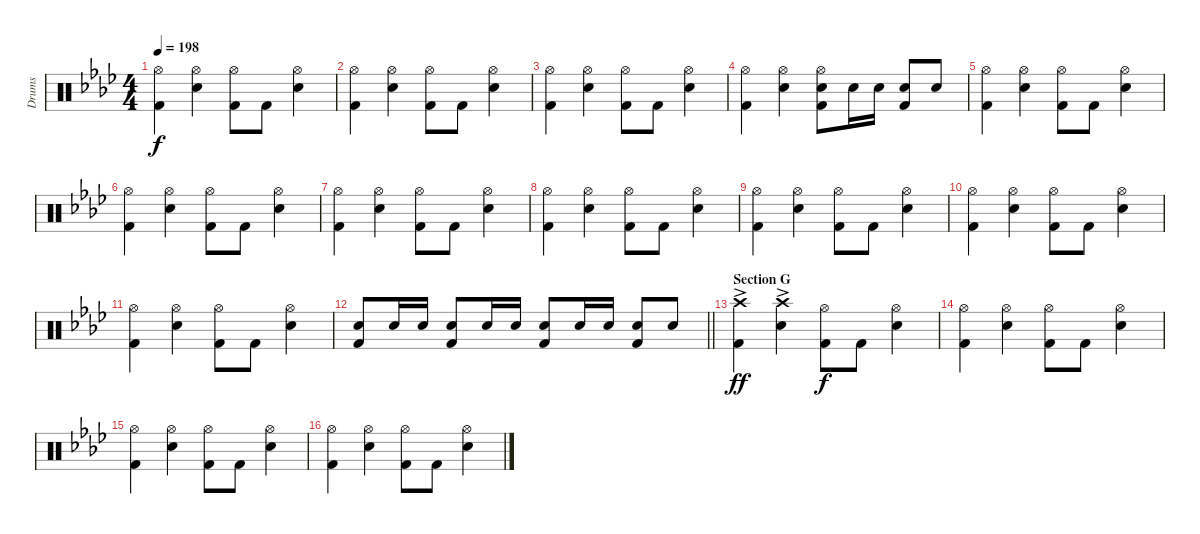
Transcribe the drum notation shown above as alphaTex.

\track ("Drums" "Drums") {instrument percussion}
\staff {score}
\articulation defaults
\ts (4 4)
\tempo 198
\clef neutral
\ks ab
("Hi-Hat (open)" "Kick (hit) 2").4{dy f} ("Hi-Hat (open)" "Snare (hit) 2").4 ("Hi-Hat (open)" "Kick (hit) 2").8 "Kick (hit) 2".8 ("Hi-Hat (open)" "Snare (hit) 2").4 |
("Hi-Hat (open)" "Kick (hit) 2").4 ("Hi-Hat (open)" "Snare (hit) 2").4 ("Hi-Hat (open)" "Kick (hit) 2").8 "Kick (hit) 2".8 ("Hi-Hat (open)" "Snare (hit) 2").4 |
("Hi-Hat (open)" "Kick (hit) 2").4 ("Hi-Hat (open)" "Snare (hit) 2").4 ("Hi-Hat (open)" "Kick (hit) 2").8 "Kick (hit) 2".8 ("Hi-Hat (open)" "Snare (hit) 2").4 |
("Hi-Hat (open)" "Kick (hit) 2").4 ("Hi-Hat (open)" "Snare (hit) 2").4 ("Hi-Hat (open)" "Snare (hit) 2" "Kick (hit) 2").8 "Snare (hit) 2".16 "Snare (hit) 2".16 ("Snare (hit) 2" "Kick (hit) 2").8 "Snare (hit) 2".8 |
("Hi-Hat (open)" "Kick (hit) 2").4 ("Hi-Hat (open)" "Snare (hit) 2").4 ("Hi-Hat (open)" "Kick (hit) 2").8 "Kick (hit) 2".8 ("Hi-Hat (open)" "Snare (hit) 2").4 |
("Hi-Hat (open)" "Kick (hit) 2").4 ("Hi-Hat (open)" "Snare (hit) 2").4 ("Hi-Hat (open)" "Kick (hit) 2").8 "Kick (hit) 2".8 ("Hi-Hat (open)" "Snare (hit) 2").4 |
("Hi-Hat (open)" "Kick (hit) 2").4 ("Hi-Hat (open)" "Snare (hit) 2").4 ("Hi-Hat (open)" "Kick (hit) 2").8 "Kick (hit) 2".8 ("Hi-Hat (open)" "Snare (hit) 2").4 |
("Hi-Hat (open)" "Kick (hit) 2").4 ("Hi-Hat (open)" "Snare (hit) 2").4 ("Hi-Hat (open)" "Kick (hit) 2").8 "Kick (hit) 2".8 ("Hi-Hat (open)" "Snare (hit) 2").4 |
("Hi-Hat (open)" "Kick (hit) 2").4 ("Hi-Hat (open)" "Snare (hit) 2").4 ("Hi-Hat (open)" "Kick (hit) 2").8 "Kick (hit) 2".8 ("Hi-Hat (open)" "Snare (hit) 2").4 |
("Hi-Hat (open)" "Kick (hit) 2").4 ("Hi-Hat (open)" "Snare (hit) 2").4 ("Hi-Hat (open)" "Kick (hit) 2").8 "Kick (hit) 2".8 ("Hi-Hat (open)" "Snare (hit) 2").4 |
("Hi-Hat (open)" "Kick (hit) 2").4 ("Hi-Hat (open)" "Snare (hit) 2").4 ("Hi-Hat (open)" "Kick (hit) 2").8 "Kick (hit) 2".8 ("Hi-Hat (open)" "Snare (hit) 2").4 |
\barLineRight lightlight
("Snare (hit) 2" "Kick (hit) 2").8 "Snare (hit) 2".16 "Snare (hit) 2".16 ("Snare (hit) 2" "Kick (hit) 2").8 "Snare (hit) 2".16 "Snare (hit) 2".16 ("Snare (hit) 2" "Kick (hit) 2").8 "Snare (hit) 2".16 "Snare (hit) 2".16 ("Snare (hit) 2" "Kick (hit) 2").8 "Snare (hit) 2".8 |
\section ("" "Section G")
("Crash high (hit)"{ac} "Kick (hit) 2"{ac}).4{dy ff} ("Crash high (hit)"{ac} "Snare (hit) 2"{ac}).4 ("Hi-Hat (open)" "Kick (hit) 2").8{dy f} "Kick (hit) 2".8 ("Hi-Hat (open)" "Snare (hit) 2").4 |
("Hi-Hat (open)" "Kick (hit) 2").4 ("Hi-Hat (open)" "Snare (hit) 2").4 ("Hi-Hat (open)" "Kick (hit) 2").8 "Kick (hit) 2".8 ("Hi-Hat (open)" "Snare (hit) 2").4 |
("Hi-Hat (open)" "Kick (hit) 2").4 ("Hi-Hat (open)" "Snare (hit) 2").4 ("Hi-Hat (open)" "Kick (hit) 2").8 "Kick (hit) 2".8 ("Hi-Hat (open)" "Snare (hit) 2").4 |
("Hi-Hat (open)" "Kick (hit) 2").4 ("Hi-Hat (open)" "Snare (hit) 2").4 ("Hi-Hat (open)" "Kick (hit) 2").8 "Kick (hit) 2".8 ("Hi-Hat (open)" "Snare (hit) 2").4
